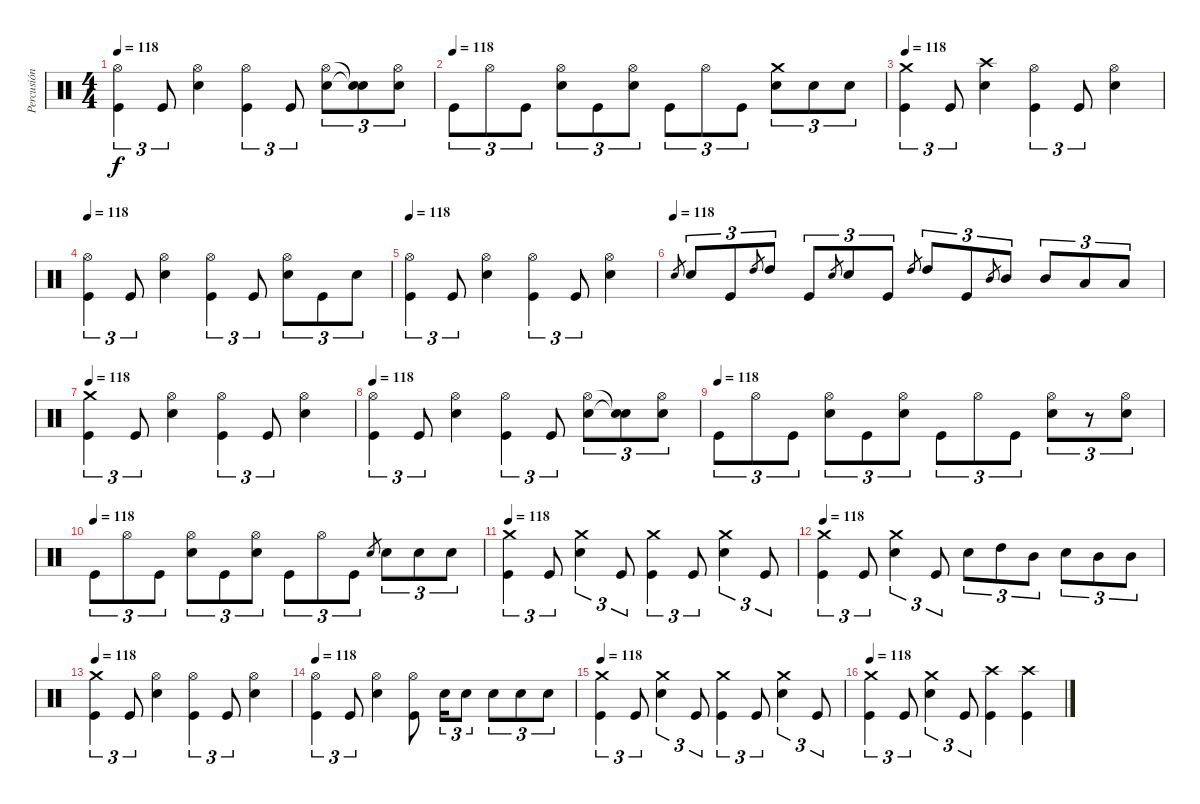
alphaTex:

\track ("Percusión" "Percusión") {instrument percussion}
\staff {score}
\articulation defaults
\ts (4 4)
\tempo 118
\clef neutral
\ks c
("Hi-Hat (open)" "Kick (hit)").4{tu (3 2) dy f} "Kick (hit)".8{tu (3 2)} ("Hi-Hat (open)" "Electric Snare (hit)").4 ("Hi-Hat (open)" "Kick (hit)").4{tu (3 2)} "Kick (hit)".8{tu (3 2)} ("Hi-Hat (open)" "Electric Snare (hit)").8{tu (3 2)} ("Snare (hit)"{t} "Snare (hit)"{t}).8{tu (3 2)} ("Hi-Hat (open)" "Electric Snare (hit)").8{tu (3 2)} |
\tempo (118)
"Kick (hit)".8{tu (3 2)} "Hi-Hat (open)".8{tu (3 2)} "Kick (hit)".8{tu (3 2)} ("Hi-Hat (open)" "Electric Snare (hit)").8{tu (3 2)} "Kick (hit)".8{tu (3 2)} ("Hi-Hat (open)" "Electric Snare (hit)").8{tu (3 2)} "Kick (hit)".8{tu (3 2)} "Hi-Hat (open)".8{tu (3 2)} "Kick (hit)".8{tu (3 2)} ("Crash medium (hit)" "Electric Snare (hit)").8{tu (3 2)} "Electric Snare (hit)".8{tu (3 2)} "Electric Snare (hit)".8{tu (3 2)} |
\tempo 118
("Crash medium (hit)" "Kick (hit)").4{tu (3 2)} "Kick (hit)".8{tu (3 2)} ("Crash high (hit)" "Electric Snare (hit)").4 ("Hi-Hat (open)" "Kick (hit)").4{tu (3 2)} "Kick (hit)".8{tu (3 2)} ("Hi-Hat (open)" "Electric Snare (hit)").4 |
\tempo 118
("Hi-Hat (open)" "Kick (hit)").4{tu (3 2)} "Kick (hit)".8{tu (3 2)} ("Hi-Hat (open)" "Electric Snare (hit)").4 ("Hi-Hat (open)" "Kick (hit)").4{tu (3 2)} "Kick (hit)".8{tu (3 2)} ("Hi-Hat (open)" "Electric Snare (hit)").8{tu (3 2)} "Kick (hit)".8{tu (3 2)} "Electric Snare (hit)".8{tu (3 2)} |
\tempo 118
("Hi-Hat (open)" "Kick (hit)").4{tu (3 2)} "Kick (hit)".8{tu (3 2)} ("Hi-Hat (open)" "Electric Snare (hit)").4 ("Hi-Hat (open)" "Kick (hit)").4{tu (3 2)} "Kick (hit)".8{tu (3 2)} ("Hi-Hat (open)" "Electric Snare (hit)").4 |
\tempo (118)
"Electric Snare (hit)".8{gr} "Electric Snare (hit)".8{tu (3 2)} "Kick (hit)".8{tu (3 2)} "High Tom (hit)".8{gr} "High Tom (hit)".8{tu (3 2)} "Kick (hit)".8{tu (3 2)} "Electric Snare (hit)".8{gr} "Electric Snare (hit)".8{tu (3 2)} "Kick (hit)".8{tu (3 2)} "High Tom (hit)".8{gr} "High Tom (hit)".8{tu (3 2)} "Kick (hit)".8{tu (3 2)} "Mid Tom (hit)".8{gr} "Mid Tom (hit)".8{tu (3 2)} "Mid Tom (hit)".8{tu (3 2)} "Low Tom (hit)".8{tu (3 2)} "Low Tom (hit)".8{tu (3 2)} |
\tempo 118
("Crash medium (hit)" "Kick (hit)").4{tu (3 2)} "Kick (hit)".8{tu (3 2)} ("Hi-Hat (open)" "Electric Snare (hit)").4 ("Hi-Hat (open)" "Kick (hit)").4{tu (3 2)} "Kick (hit)".8{tu (3 2)} ("Hi-Hat (open)" "Electric Snare (hit)").4 |
\tempo 118
("Hi-Hat (open)" "Kick (hit)").4{tu (3 2)} "Kick (hit)".8{tu (3 2)} ("Hi-Hat (open)" "Electric Snare (hit)").4 ("Hi-Hat (open)" "Kick (hit)").4{tu (3 2)} "Kick (hit)".8{tu (3 2)} ("Hi-Hat (open)" "Electric Snare (hit)").8{tu (3 2)} ("Snare (hit)"{t} "Snare (hit)"{t}).8{tu (3 2)} ("Hi-Hat (open)" "Electric Snare (hit)").8{tu (3 2)} |
\tempo (118)
"Kick (hit)".8{tu (3 2)} "Hi-Hat (open)".8{tu (3 2)} "Kick (hit)".8{tu (3 2)} ("Hi-Hat (open)" "Electric Snare (hit)").8{tu (3 2)} "Kick (hit)".8{tu (3 2)} ("Hi-Hat (open)" "Electric Snare (hit)").8{tu (3 2)} "Kick (hit)".8{tu (3 2)} "Hi-Hat (open)".8{tu (3 2)} "Kick (hit)".8{tu (3 2)} ("Hi-Hat (open)" "Electric Snare (hit)").8{tu (3 2)} r.8{tu (3 2)} ("Hi-Hat (open)" "Electric Snare (hit)").8{tu (3 2)} |
\tempo (118)
"Kick (hit)".8{tu (3 2)} "Hi-Hat (open)".8{tu (3 2)} "Kick (hit)".8{tu (3 2)} ("Hi-Hat (open)" "Electric Snare (hit)").8{tu (3 2)} "Kick (hit)".8{tu (3 2)} ("Hi-Hat (open)" "Electric Snare (hit)").8{tu (3 2)} "Kick (hit)".8{tu (3 2)} "Hi-Hat (open)".8{tu (3 2)} "Kick (hit)".8{tu (3 2)} "Electric Snare (hit)".8{gr} "Electric Snare (hit)".8{tu (3 2)} "Electric Snare (hit)".8{tu (3 2)} "Electric Snare (hit)".8{tu (3 2)} |
\tempo 118
("Crash medium (hit)" "Kick (hit)").4{tu (3 2)} "Kick (hit)".8{tu (3 2)} ("Crash medium (hit)" "Electric Snare (hit)").4{tu (3 2)} "Kick (hit)".8{tu (3 2)} ("Crash medium (hit)" "Kick (hit)").4{tu (3 2)} "Kick (hit)".8{tu (3 2)} ("Crash medium (hit)" "Electric Snare (hit)").4{tu (3 2)} "Kick (hit)".8{tu (3 2)} |
\tempo 118
("Crash medium (hit)" "Kick (hit)").4{tu (3 2)} "Kick (hit)".8{tu (3 2)} ("Crash medium (hit)" "Electric Snare (hit)").4{tu (3 2)} "Kick (hit)".8{tu (3 2)} "Electric Snare (hit)".8{tu (3 2)} "High Tom (hit)".8{tu (3 2)} "Mid Tom (hit)".8{tu (3 2)} "Electric Snare (hit)".8{tu (3 2)} "Mid Tom (hit)".8{tu (3 2)} "Mid Tom (hit)".8{tu (3 2)} |
\tempo 118
("Crash medium (hit)" "Kick (hit)").4{tu (3 2)} "Kick (hit)".8{tu (3 2)} ("Hi-Hat (open)" "Electric Snare (hit)").4 ("Hi-Hat (open)" "Kick (hit)").4{tu (3 2)} "Kick (hit)".8{tu (3 2)} ("Hi-Hat (open)" "Electric Snare (hit)").4 |
\tempo 118
("Hi-Hat (open)" "Kick (hit)").4{tu (3 2)} "Kick (hit)".8{tu (3 2)} ("Hi-Hat (open)" "Electric Snare (hit)").4 ("Hi-Hat (open)" "Kick (hit)").8 "Electric Snare (hit)".16{tu (3 2)} "Electric Snare (hit)".8{tu (3 2)} "Electric Snare (hit)".8{tu (3 2)} "Electric Snare (hit)".8{tu (3 2)} "Electric Snare (hit)".8{tu (3 2)} |
\tempo 118
("Crash medium (hit)" "Kick (hit)").4{tu (3 2)} "Kick (hit)".8{tu (3 2)} ("Crash medium (hit)" "Electric Snare (hit)").4{tu (3 2)} "Kick (hit)".8{tu (3 2)} ("Crash medium (hit)" "Kick (hit)").4{tu (3 2)} "Kick (hit)".8{tu (3 2)} ("Crash medium (hit)" "Electric Snare (hit)").4{tu (3 2)} "Kick (hit)".8{tu (3 2)} |
\tempo 118
("Crash medium (hit)" "Kick (hit)").4{tu (3 2)} "Kick (hit)".8{tu (3 2)} ("Crash medium (hit)" "Electric Snare (hit)").4{tu (3 2)} "Kick (hit)".8{tu (3 2)} ("Crash high (hit)" "Kick (hit)").4 ("Crash high (hit)" "Kick (hit)").4
